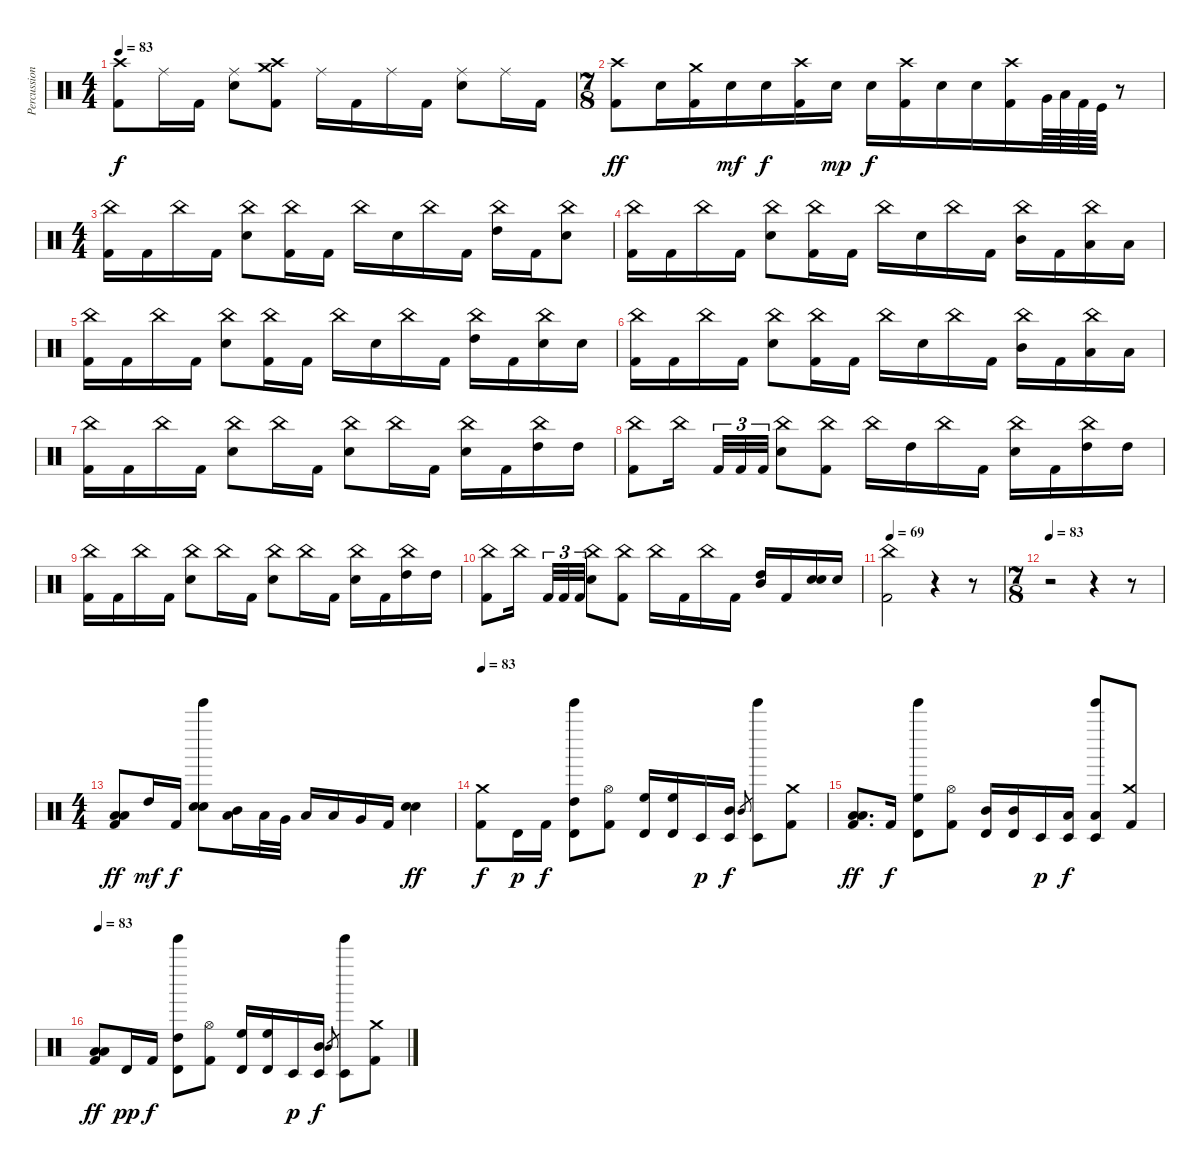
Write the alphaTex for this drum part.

\track ("Percussion" "Percussion") {instrument percussion}
\staff {score}
\articulation defaults
\ts (4 4)
\tempo 83
\clef neutral
\ks c
("Crash high (hit)" "Kick (hit) 2").8{dy f} "Ride (middle)".16 "Kick (hit) 2".16 ("Ride (middle)" "Electric Snare (hit)").8 ("Crash high (hit)" "Crash medium (hit)" "Kick (hit) 2").8 "Ride (middle)".16 "Kick (hit) 2".16 "Ride (middle)".16 "Kick (hit) 2".16 ("Ride (middle)" "Electric Snare (hit)").8 "Ride (middle)".16 "Kick (hit) 2".16 |
\ts (7 8)
("Crash high (hit)" "Kick (hit) 2").8{dy ff} "Electric Snare (hit)".16 ("Crash medium (hit)" "Kick (hit) 2").16 "Electric Snare (hit)".16{dy mf} "Electric Snare (hit)".16{dy f} ("Crash high (hit)" "Kick (hit) 2").16 "Electric Snare (hit)".16{dy mp} "Electric Snare (hit)".16{dy f} ("Crash high (hit)" "Kick (hit) 2").16 "Electric Snare (hit)".16 "Electric Snare (hit)".16 ("Crash high (hit)" "Kick (hit) 2").16 "Very Low Tom (hit)".64 "Low Floor Tom (hit)".64 "Kick (hit) 2".64 "Kick (hit)".64 r.8 |
\ts (4 4)
("China (hit)" "Kick (hit) 2").16 "Kick (hit) 2".16 "China (hit)".16 "Kick (hit) 2".16 ("China (hit)" "Electric Snare (hit)").8 ("China (hit)" "Kick (hit) 2").16 "Kick (hit) 2".16 "China (hit)".16 "Electric Snare (hit)".16 "China (hit)".16 "Kick (hit) 2".16 ("China (hit)" "High Tom (hit)").16 "Kick (hit) 2".16 ("China (hit)" "Electric Snare (hit)").8 |
("China (hit)" "Kick (hit) 2").16 "Kick (hit) 2".16 "China (hit)".16 "Kick (hit) 2".16 ("China (hit)" "Electric Snare (hit)").8 ("China (hit)" "Kick (hit) 2").16 "Kick (hit) 2".16 "China (hit)".16 "Electric Snare (hit)".16 "China (hit)".16 "Kick (hit) 2".16 ("China (hit)" "Mid Tom (hit)").16 "Kick (hit) 2".16 ("China (hit)" "Low Tom (hit)").16 "Low Tom (hit)".16 |
("China (hit)" "Kick (hit) 2").16 "Kick (hit) 2".16 "China (hit)".16 "Kick (hit) 2".16 ("China (hit)" "Electric Snare (hit)").8 ("China (hit)" "Kick (hit) 2").16 "Kick (hit) 2".16 "China (hit)".16 "Electric Snare (hit)".16 "China (hit)".16 "Kick (hit) 2".16 ("China (hit)" "High Tom (hit)").16 "Kick (hit) 2".16 ("China (hit)" "Electric Snare (hit)").16 "Electric Snare (hit)".16 |
("China (hit)" "Kick (hit) 2").16 "Kick (hit) 2".16 "China (hit)".16 "Kick (hit) 2".16 ("China (hit)" "Electric Snare (hit)").8 ("China (hit)" "Kick (hit) 2").16 "Kick (hit) 2".16 "China (hit)".16 "Electric Snare (hit)".16 "China (hit)".16 "Kick (hit) 2".16 ("China (hit)" "Mid Tom (hit)").16 "Kick (hit) 2".16 ("China (hit)" "Low Tom (hit)").16 "Low Tom (hit)".16 |
("China (hit)" "Kick (hit) 2").16 "Kick (hit) 2".16 "China (hit)".16 "Kick (hit) 2".16 ("China (hit)" "Electric Snare (hit)").8 "China (hit)".16 "Kick (hit) 2".16 ("China (hit)" "Electric Snare (hit)").8 "China (hit)".16 "Kick (hit) 2".16 ("China (hit)" "Electric Snare (hit)").16 "Kick (hit) 2".16 ("China (hit)" "High Tom (hit)").16 "High Tom (hit)".16 |
("China (hit)" "Kick (hit) 2").8 "China (hit)".16{beam splitsecondary} "Kick (hit) 2".32{tu (3 2)} "Kick (hit) 2".32{tu (3 2)} "Kick (hit) 2".32{tu (3 2)} ("China (hit)" "Electric Snare (hit)").8 ("China (hit)" "Kick (hit) 2").8 "China (hit)".16 "High Tom (hit)".16 "China (hit)".16 "Kick (hit) 2".16 ("China (hit)" "Electric Snare (hit)").16 "Kick (hit) 2".16 ("China (hit)" "High Tom (hit)").16 "High Tom (hit)".16 |
("China (hit)" "Kick (hit) 2").16 "Kick (hit) 2".16 "China (hit)".16 "Kick (hit) 2".16 ("China (hit)" "Electric Snare (hit)").8 "China (hit)".16 "Kick (hit) 2".16 ("China (hit)" "Electric Snare (hit)").8 "China (hit)".16 "Kick (hit) 2".16 ("China (hit)" "Electric Snare (hit)").16 "Kick (hit) 2".16 ("China (hit)" "High Tom (hit)").16 "High Tom (hit)".16 |
("China (hit)" "Kick (hit) 2").8 "China (hit)".16{beam splitsecondary} "Kick (hit) 2".32{tu (3 2)} "Kick (hit) 2".32{tu (3 2)} "Kick (hit) 2".32{tu (3 2)} ("China (hit)" "Electric Snare (hit)").8 ("China (hit)" "Kick (hit) 2").8 "China (hit)".16 "Kick (hit) 2".16 "China (hit)".16 "Kick (hit) 2".16 ("High Tom (hit)" "Mid Tom (hit)").16{bd 60} "Kick (hit) 2".16 ("Electric Snare (hit)" "Electric Snare (hit)").16{bd 120} "Electric Snare (hit)".16 |
\tempo 69
("China (hit)" "Kick (hit) 2").2 r.4 r.8 |
\ts (7 8)
\tempo 83
r.2 r.4 r.8 |
\ts (4 4)
("Low Floor Tom (hit)" "Low Floor Tom (hit)" "Kick (hit) 2").8{dy ff} "High Tom (hit)".16{dy mf} "Kick (hit) 2".16{dy f} ("Electric Snare (hit)" "Electric Snare (hit)" "Tinkle Bell (hit)").8{bd 60} ("Mid Tom (hit)" "Low Tom (hit)").16{bd 60} "Low Tom (hit)".32 "Very Low Tom (hit)".32 "Low Floor Tom (hit)".16 "Low Tom (hit)".16 "Very Low Tom (hit)".16 "Kick (hit) 2".16 ("Electric Snare (hit)" "Electric Snare (hit)").4{bd 60 dy ff} |
\tempo 83
("Crash medium (hit)" "Kick (hit) 2").8{dy f} "Timbale high (hit)".16{dy p} "Kick (hit) 2".16{dy f} ("Tinkle Bell (hit)" "Timbale high (hit)" "High Tom (hit)").8{bu 120} ("Hi-Hat (open)" "Kick (hit) 2").8 ("Timbale high (hit)" "High Floor Tom (hit)").16 ("Timbale high (hit)" "High Floor Tom (hit)").16{bd 480} "Timbale low (hit)".16{dy p} ("Timbale low (hit)" "Mid Tom (hit)").16{dy f} "Mid Tom (hit)".8{gr} ("Tinkle Bell (hit)" "Timbale low (hit)").8 ("Crash medium (hit)" "Kick (hit) 2").8 |
("Low Floor Tom (hit)" "Low Floor Tom (hit)" "Kick (hit) 2").8{d dy ff} "Kick (hit) 2".16{dy f} ("Tinkle Bell (hit)" "Timbale high (hit)" "High Floor Tom (hit)").8{bu 120} ("Hi-Hat (open)" "Kick (hit) 2").8 ("Timbale high (hit)" "Mid Tom (hit)").16 ("Timbale high (hit)" "Mid Tom (hit)").16{bu 480} "Timbale low (hit)".16{dy p} ("Timbale low (hit)" "Low Tom (hit)").16{dy f} ("Tinkle Bell (hit)" "Timbale low (hit)" "Low Tom (hit)").8{bu 120} ("Crash medium (hit)" "Kick (hit) 2").8 |
\tempo 83
("Low Floor Tom (hit)" "Low Floor Tom (hit)" "Kick (hit) 2").8{dy ff} "Timbale high (hit)".16{dy pp} "Kick (hit) 2".16{dy f} ("Tinkle Bell (hit)" "Timbale high (hit)" "High Tom (hit)").8{bu 120} ("Hi-Hat (open)" "Kick (hit) 2").8 ("Timbale high (hit)" "High Floor Tom (hit)").16 ("Timbale high (hit)" "High Floor Tom (hit)").16{bd 480} "Timbale low (hit)".16{dy p} ("Timbale low (hit)" "Mid Tom (hit)").16{dy f} "Mid Tom (hit)".8{gr} ("Tinkle Bell (hit)" "Timbale low (hit)").8 ("Crash medium (hit)" "Kick (hit) 2").8
